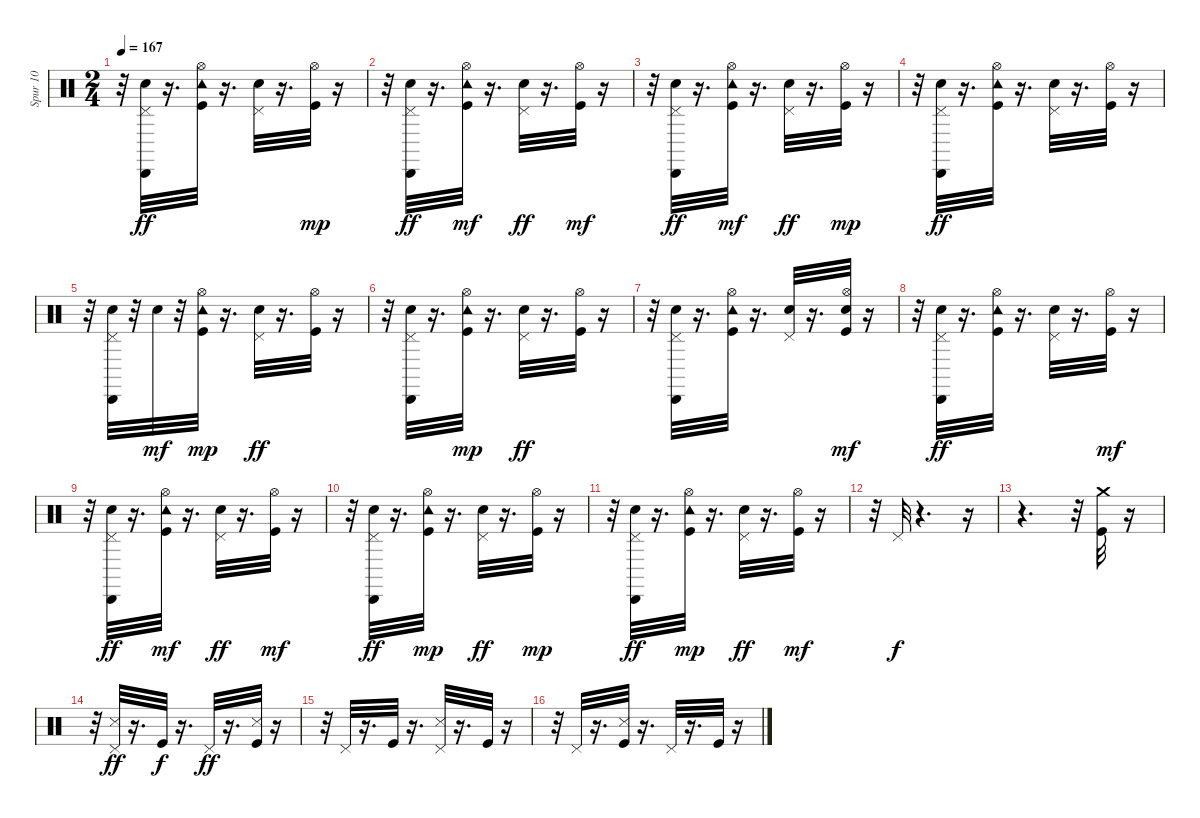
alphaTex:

\track ("Spur 10" "Spur 10") {instrument percussion}
\staff {score}
\articulation defaults
\ts (2 4)
\tempo 167
\clef neutral
\ks c
r.32{dy ff} ("Pedal Hi-Hat (hit)" "Cabasa (hit)" "Snare (hit) 2").32 r.16{d} ("Hi-Hat (open)" "Tambourine (hit)" "Kick (hit)").32 r.16{d} ("Pedal Hi-Hat (hit)" "Snare (hit) 2").32 r.16{d} ("Kick (hit)" "Hi-Hat (open)").32{dy mp} r.16 |
r.32 ("Cabasa (hit)" "Snare (hit) 2" "Pedal Hi-Hat (hit)").32{dy ff} r.16{d} ("Kick (hit)" "Tambourine (hit)" "Hi-Hat (open)").32{dy mf} r.16{d} ("Snare (hit) 2" "Pedal Hi-Hat (hit)").32{dy ff} r.16{d} ("Kick (hit)" "Hi-Hat (open)").32{dy mf} r.16 |
r.32 ("Cabasa (hit)" "Snare (hit) 2" "Pedal Hi-Hat (hit)").32{dy ff} r.16{d} ("Kick (hit)" "Hi-Hat (open)" "Tambourine (hit)").32{dy mf} r.16{d} ("Snare (hit) 2" "Pedal Hi-Hat (hit)").32{dy ff} r.16{d} ("Kick (hit)" "Hi-Hat (open)").32{dy mp} r.16 |
r.32 ("Pedal Hi-Hat (hit)" "Snare (hit) 2" "Cabasa (hit)").32{dy ff} r.16{d} ("Hi-Hat (open)" "Kick (hit)" "Tambourine (hit)").32 r.16{d} ("Snare (hit) 2" "Pedal Hi-Hat (hit)").32 r.16{d} ("Hi-Hat (open)" "Kick (hit)").32 r.16 |
r.32 ("Snare (hit) 2" "Cabasa (hit)" "Pedal Hi-Hat (hit)").32 r.32 "Snare (hit) 2".32{dy mf} r.32 ("Tambourine (hit)" "Hi-Hat (open)" "Kick (hit)").32{dy mp} r.16{d} ("Snare (hit) 2" "Pedal Hi-Hat (hit)").32{dy ff} r.16{d} ("Hi-Hat (open)" "Kick (hit)").32 r.16 |
r.32 ("Snare (hit) 2" "Pedal Hi-Hat (hit)" "Cabasa (hit)").32 r.16{d} ("Kick (hit)" "Hi-Hat (open)" "Tambourine (hit)").32{dy mp} r.16{d} ("Pedal Hi-Hat (hit)" "Snare (hit) 2").32{dy ff} r.16{d} ("Hi-Hat (open)" "Kick (hit)").32 r.16 |
r.32 ("Pedal Hi-Hat (hit)" "Cabasa (hit)" "Snare (hit) 2").32 r.16{d} ("Hi-Hat (open)" "Kick (hit)" "Tambourine (hit)").32 r.16{d} ("Snare (hit) 2" "Pedal Hi-Hat (hit)").32 r.16{d} ("Snare (hit) 2" "Hi-Hat (open)" "Kick (hit)").32{dy mf} r.16 |
r.32 ("Snare (hit) 2" "Pedal Hi-Hat (hit)" "Cabasa (hit)").32{dy ff} r.16{d} ("Tambourine (hit)" "Hi-Hat (open)" "Kick (hit)").32 r.16{d} ("Snare (hit) 2" "Pedal Hi-Hat (hit)").32 r.16{d} ("Kick (hit)" "Hi-Hat (open)").32{dy mf} r.16 |
r.32 ("Snare (hit) 2" "Cabasa (hit)" "Pedal Hi-Hat (hit)").32{dy ff} r.16{d} ("Kick (hit)" "Hi-Hat (open)" "Tambourine (hit)").32{dy mf} r.16{d} ("Pedal Hi-Hat (hit)" "Snare (hit) 2").32{dy ff} r.16{d} ("Kick (hit)" "Hi-Hat (open)").32{dy mf} r.16 |
r.32 ("Snare (hit) 2" "Pedal Hi-Hat (hit)" "Cabasa (hit)").32{dy ff} r.16{d} ("Tambourine (hit)" "Kick (hit)" "Hi-Hat (open)").32{dy mp} r.16{d} ("Snare (hit) 2" "Pedal Hi-Hat (hit)").32{dy ff} r.16{d} ("Hi-Hat (open)" "Kick (hit)").32{dy mp} r.16 |
r.32 ("Snare (hit) 2" "Cabasa (hit)" "Pedal Hi-Hat (hit)").32{dy ff} r.16{d} ("Kick (hit)" "Tambourine (hit)" "Hi-Hat (open)").32{dy mp} r.16{d} ("Pedal Hi-Hat (hit)" "Snare (hit) 2").32{dy ff} r.16{d} ("Kick (hit)" "Hi-Hat (open)").32{dy mf} r.16 |
r.32 "Pedal Hi-Hat (hit)".32{dy f} r.4{d} r.16 |
r.4{d} r.32 ("Crash medium (hit)" "Kick (hit)").32 r.16 |
r.32 ("Snare (side stick) 3" "Pedal Hi-Hat (hit)").32{dy ff} r.16{d} "Kick (hit)".32{dy f} r.16{d} "Pedal Hi-Hat (hit)".32{dy ff} r.16{d} ("Snare (side stick) 3" "Kick (hit)").32 r.16 |
r.32 "Pedal Hi-Hat (hit)".32 r.16{d} "Kick (hit)".32 r.16{d} ("Snare (side stick) 3" "Pedal Hi-Hat (hit)").32 r.16{d} "Kick (hit)".32 r.16 |
r.32 "Pedal Hi-Hat (hit)".32 r.16{d} ("Kick (hit)" "Snare (side stick) 3").32 r.16{d} "Pedal Hi-Hat (hit)".32 r.16{d} "Kick (hit)".32 r.16
